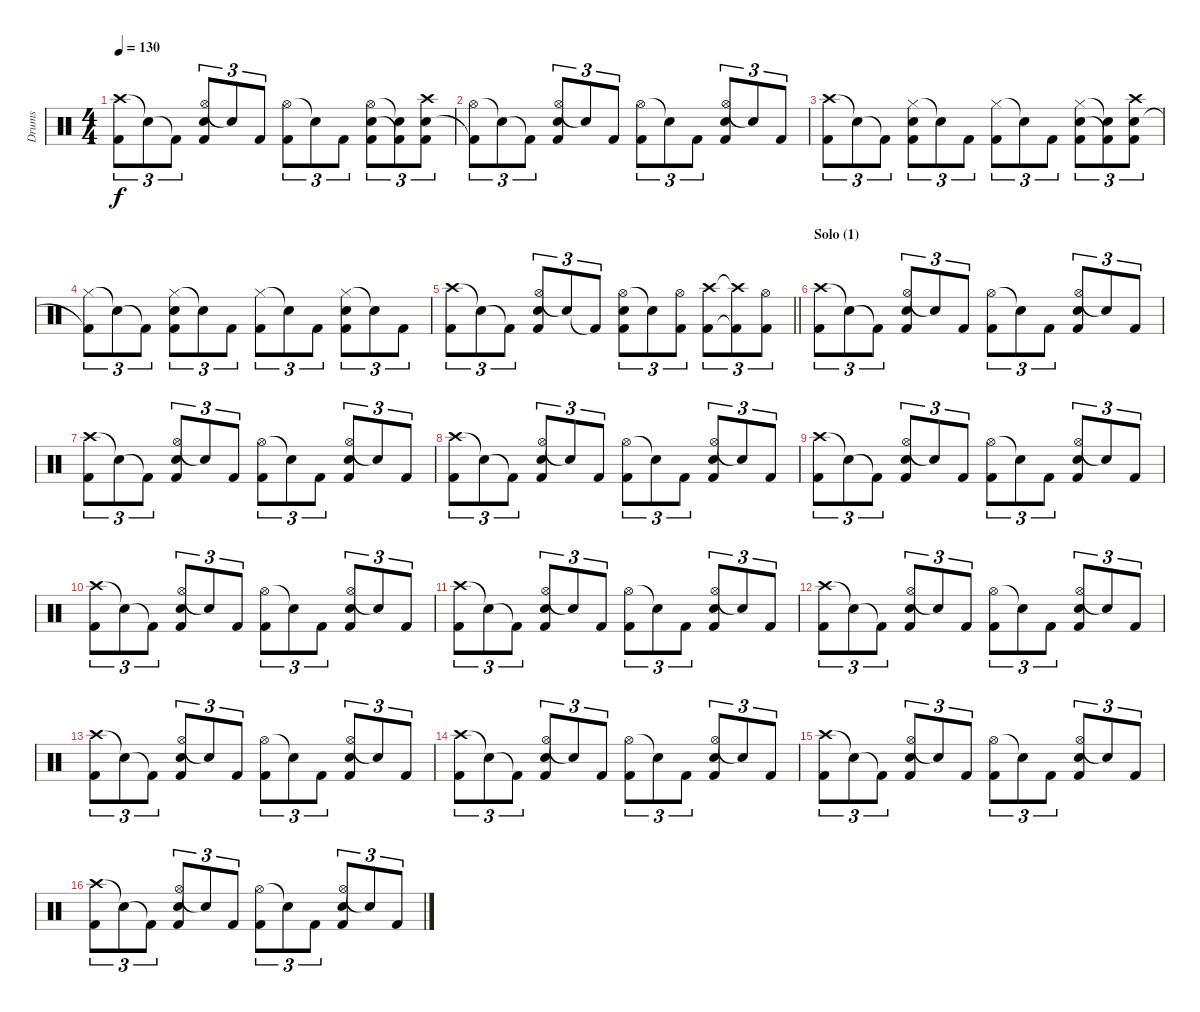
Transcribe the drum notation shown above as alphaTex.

\track ("Drums" "Drums") {instrument percussion}
\staff {score}
\articulation defaults
\ts (4 4)
\tempo 130
\clef neutral
\ks c
("Crash high (hit)" "Kick (hit) 2").8{tu (3 2) dy f} "Snare (hit)"{t}.8{tu (3 2)} "Kick (hit) 2"{t}.8{tu (3 2)} ("Hi-Hat (open)" "Electric Snare (hit)" "Kick (hit) 2").8{tu (3 2)} "Snare (hit)"{t}.8{tu (3 2)} "Kick (hit) 2".8{tu (3 2)} ("Hi-Hat (open)" "Kick (hit) 2").8{tu (3 2)} "Snare (hit)"{t}.8{tu (3 2)} "Kick (hit) 2".8{tu (3 2)} ("Hi-Hat (open)" "Electric Snare (hit)" "Kick (hit) 2").8{tu (3 2)} ("Electric Snare (hit)"{t} "Kick (hit) 2"{t}).8{tu (3 2)} ("Crash high (hit)" "Electric Snare (hit)" "Kick (hit) 2").8{tu (3 2)} |
("Hi-Hat (open)" "Kick (hit) 2"{t}).8{tu (3 2)} "Snare (hit)"{t}.8{tu (3 2)} "Kick (hit) 2"{t}.8{tu (3 2)} ("Hi-Hat (open)" "Electric Snare (hit)" "Kick (hit) 2").8{tu (3 2)} "Snare (hit)"{t}.8{tu (3 2)} "Kick (hit) 2".8{tu (3 2)} ("Hi-Hat (open)" "Kick (hit) 2").8{tu (3 2)} "Snare (hit)"{t}.8{tu (3 2)} "Kick (hit) 2".8{tu (3 2)} ("Hi-Hat (open)" "Electric Snare (hit)" "Kick (hit) 2").8{tu (3 2)} "Snare (hit)"{t}.8{tu (3 2)} "Kick (hit) 2".8{tu (3 2)} |
("Crash high (hit)" "Kick (hit) 2").8{tu (3 2)} "Snare (hit)"{t}.8{tu (3 2)} "Kick (hit) 2"{t}.8{tu (3 2)} ("Hi-Hat (closed)" "Electric Snare (hit)" "Kick (hit) 2").8{tu (3 2)} "Snare (hit)"{t}.8{tu (3 2)} "Kick (hit) 2".8{tu (3 2)} ("Hi-Hat (closed)" "Kick (hit) 2").8{tu (3 2)} "Snare (hit)"{t}.8{tu (3 2)} "Kick (hit) 2".8{tu (3 2)} ("Hi-Hat (closed)" "Electric Snare (hit)" "Kick (hit) 2").8{tu (3 2)} ("Electric Snare (hit)"{t} "Kick (hit) 2"{t}).8{tu (3 2)} ("Crash high (hit)" "Electric Snare (hit)" "Kick (hit) 2").8{tu (3 2)} |
("Hi-Hat (closed)" "Kick (hit) 2"{t}).8{tu (3 2)} "Snare (hit)"{t}.8{tu (3 2)} "Kick (hit) 2"{t}.8{tu (3 2)} ("Hi-Hat (closed)" "Electric Snare (hit)" "Kick (hit) 2").8{tu (3 2)} "Snare (hit)"{t}.8{tu (3 2)} "Kick (hit) 2".8{tu (3 2)} ("Hi-Hat (closed)" "Kick (hit) 2").8{tu (3 2)} "Snare (hit)"{t}.8{tu (3 2)} "Kick (hit) 2".8{tu (3 2)} ("Hi-Hat (closed)" "Electric Snare (hit)" "Kick (hit) 2").8{tu (3 2)} "Snare (hit)"{t}.8{tu (3 2)} "Kick (hit) 2".8{tu (3 2)} |
\barLineRight lightlight
("Crash high (hit)" "Kick (hit) 2").8{tu (3 2)} "Snare (hit)"{t}.8{tu (3 2)} "Kick (hit) 2"{t}.8{tu (3 2)} ("Hi-Hat (open)" "Electric Snare (hit)" "Kick (hit) 2").8{tu (3 2)} "Snare (hit)"{t}.8{tu (3 2)} "Kick (hit) 2"{t}.8{tu (3 2)} ("Hi-Hat (open)" "Electric Snare (hit)" "Kick (hit) 2").8{tu (3 2)} "Snare (hit)"{t}.8{tu (3 2)} ("Hi-Hat (open)" "Kick (hit) 2").8{tu (3 2)} ("Crash high (hit)" "Kick (hit) 2").8{tu (3 2)} ("Crash high (hit)"{t} "Kick (hit) 2"{t}).8{tu (3 2)} ("Hi-Hat (open)" "Kick (hit) 2").8{tu (3 2)} |
\section ("" "Solo (1)")
("Crash high (hit)" "Kick (hit) 2").8{tu (3 2)} "Snare (hit)"{t}.8{tu (3 2)} "Kick (hit) 2"{t}.8{tu (3 2)} ("Hi-Hat (open)" "Electric Snare (hit)" "Kick (hit) 2").8{tu (3 2)} "Snare (hit)"{t}.8{tu (3 2)} "Kick (hit) 2".8{tu (3 2)} ("Hi-Hat (open)" "Kick (hit) 2").8{tu (3 2)} "Snare (hit)"{t}.8{tu (3 2)} "Kick (hit) 2".8{tu (3 2)} ("Hi-Hat (open)" "Electric Snare (hit)" "Kick (hit) 2").8{tu (3 2)} "Snare (hit)"{t}.8{tu (3 2)} "Kick (hit) 2".8{tu (3 2)} |
("Crash high (hit)" "Kick (hit) 2").8{tu (3 2)} "Snare (hit)"{t}.8{tu (3 2)} "Kick (hit) 2"{t}.8{tu (3 2)} ("Hi-Hat (open)" "Electric Snare (hit)" "Kick (hit) 2").8{tu (3 2)} "Snare (hit)"{t}.8{tu (3 2)} "Kick (hit) 2".8{tu (3 2)} ("Hi-Hat (open)" "Kick (hit) 2").8{tu (3 2)} "Snare (hit)"{t}.8{tu (3 2)} "Kick (hit) 2".8{tu (3 2)} ("Hi-Hat (open)" "Electric Snare (hit)" "Kick (hit) 2").8{tu (3 2)} "Snare (hit)"{t}.8{tu (3 2)} "Kick (hit) 2".8{tu (3 2)} |
("Crash high (hit)" "Kick (hit) 2").8{tu (3 2)} "Snare (hit)"{t}.8{tu (3 2)} "Kick (hit) 2"{t}.8{tu (3 2)} ("Hi-Hat (open)" "Electric Snare (hit)" "Kick (hit) 2").8{tu (3 2)} "Snare (hit)"{t}.8{tu (3 2)} "Kick (hit) 2".8{tu (3 2)} ("Hi-Hat (open)" "Kick (hit) 2").8{tu (3 2)} "Snare (hit)"{t}.8{tu (3 2)} "Kick (hit) 2".8{tu (3 2)} ("Hi-Hat (open)" "Electric Snare (hit)" "Kick (hit) 2").8{tu (3 2)} "Snare (hit)"{t}.8{tu (3 2)} "Kick (hit) 2".8{tu (3 2)} |
("Crash high (hit)" "Kick (hit) 2").8{tu (3 2)} "Snare (hit)"{t}.8{tu (3 2)} "Kick (hit) 2"{t}.8{tu (3 2)} ("Hi-Hat (open)" "Electric Snare (hit)" "Kick (hit) 2").8{tu (3 2)} "Snare (hit)"{t}.8{tu (3 2)} "Kick (hit) 2".8{tu (3 2)} ("Hi-Hat (open)" "Kick (hit) 2").8{tu (3 2)} "Snare (hit)"{t}.8{tu (3 2)} "Kick (hit) 2".8{tu (3 2)} ("Hi-Hat (open)" "Electric Snare (hit)" "Kick (hit) 2").8{tu (3 2)} "Snare (hit)"{t}.8{tu (3 2)} "Kick (hit) 2".8{tu (3 2)} |
("Crash high (hit)" "Kick (hit) 2").8{tu (3 2)} "Snare (hit)"{t}.8{tu (3 2)} "Kick (hit) 2"{t}.8{tu (3 2)} ("Hi-Hat (open)" "Electric Snare (hit)" "Kick (hit) 2").8{tu (3 2)} "Snare (hit)"{t}.8{tu (3 2)} "Kick (hit) 2".8{tu (3 2)} ("Hi-Hat (open)" "Kick (hit) 2").8{tu (3 2)} "Snare (hit)"{t}.8{tu (3 2)} "Kick (hit) 2".8{tu (3 2)} ("Hi-Hat (open)" "Electric Snare (hit)" "Kick (hit) 2").8{tu (3 2)} "Snare (hit)"{t}.8{tu (3 2)} "Kick (hit) 2".8{tu (3 2)} |
("Crash high (hit)" "Kick (hit) 2").8{tu (3 2)} "Snare (hit)"{t}.8{tu (3 2)} "Kick (hit) 2"{t}.8{tu (3 2)} ("Hi-Hat (open)" "Electric Snare (hit)" "Kick (hit) 2").8{tu (3 2)} "Snare (hit)"{t}.8{tu (3 2)} "Kick (hit) 2".8{tu (3 2)} ("Hi-Hat (open)" "Kick (hit) 2").8{tu (3 2)} "Snare (hit)"{t}.8{tu (3 2)} "Kick (hit) 2".8{tu (3 2)} ("Hi-Hat (open)" "Electric Snare (hit)" "Kick (hit) 2").8{tu (3 2)} "Snare (hit)"{t}.8{tu (3 2)} "Kick (hit) 2".8{tu (3 2)} |
("Crash high (hit)" "Kick (hit) 2").8{tu (3 2)} "Snare (hit)"{t}.8{tu (3 2)} "Kick (hit) 2"{t}.8{tu (3 2)} ("Hi-Hat (open)" "Electric Snare (hit)" "Kick (hit) 2").8{tu (3 2)} "Snare (hit)"{t}.8{tu (3 2)} "Kick (hit) 2".8{tu (3 2)} ("Hi-Hat (open)" "Kick (hit) 2").8{tu (3 2)} "Snare (hit)"{t}.8{tu (3 2)} "Kick (hit) 2".8{tu (3 2)} ("Hi-Hat (open)" "Electric Snare (hit)" "Kick (hit) 2").8{tu (3 2)} "Snare (hit)"{t}.8{tu (3 2)} "Kick (hit) 2".8{tu (3 2)} |
("Crash high (hit)" "Kick (hit) 2").8{tu (3 2)} "Snare (hit)"{t}.8{tu (3 2)} "Kick (hit) 2"{t}.8{tu (3 2)} ("Hi-Hat (open)" "Electric Snare (hit)" "Kick (hit) 2").8{tu (3 2)} "Snare (hit)"{t}.8{tu (3 2)} "Kick (hit) 2".8{tu (3 2)} ("Hi-Hat (open)" "Kick (hit) 2").8{tu (3 2)} "Snare (hit)"{t}.8{tu (3 2)} "Kick (hit) 2".8{tu (3 2)} ("Hi-Hat (open)" "Electric Snare (hit)" "Kick (hit) 2").8{tu (3 2)} "Snare (hit)"{t}.8{tu (3 2)} "Kick (hit) 2".8{tu (3 2)} |
("Crash high (hit)" "Kick (hit) 2").8{tu (3 2)} "Snare (hit)"{t}.8{tu (3 2)} "Kick (hit) 2"{t}.8{tu (3 2)} ("Hi-Hat (open)" "Electric Snare (hit)" "Kick (hit) 2").8{tu (3 2)} "Snare (hit)"{t}.8{tu (3 2)} "Kick (hit) 2".8{tu (3 2)} ("Hi-Hat (open)" "Kick (hit) 2").8{tu (3 2)} "Snare (hit)"{t}.8{tu (3 2)} "Kick (hit) 2".8{tu (3 2)} ("Hi-Hat (open)" "Electric Snare (hit)" "Kick (hit) 2").8{tu (3 2)} "Snare (hit)"{t}.8{tu (3 2)} "Kick (hit) 2".8{tu (3 2)} |
("Crash high (hit)" "Kick (hit) 2").8{tu (3 2)} "Snare (hit)"{t}.8{tu (3 2)} "Kick (hit) 2"{t}.8{tu (3 2)} ("Hi-Hat (open)" "Electric Snare (hit)" "Kick (hit) 2").8{tu (3 2)} "Snare (hit)"{t}.8{tu (3 2)} "Kick (hit) 2".8{tu (3 2)} ("Hi-Hat (open)" "Kick (hit) 2").8{tu (3 2)} "Snare (hit)"{t}.8{tu (3 2)} "Kick (hit) 2".8{tu (3 2)} ("Hi-Hat (open)" "Electric Snare (hit)" "Kick (hit) 2").8{tu (3 2)} "Snare (hit)"{t}.8{tu (3 2)} "Kick (hit) 2".8{tu (3 2)} |
("Crash high (hit)" "Kick (hit) 2").8{tu (3 2)} "Snare (hit)"{t}.8{tu (3 2)} "Kick (hit) 2"{t}.8{tu (3 2)} ("Hi-Hat (open)" "Electric Snare (hit)" "Kick (hit) 2").8{tu (3 2)} "Snare (hit)"{t}.8{tu (3 2)} "Kick (hit) 2".8{tu (3 2)} ("Hi-Hat (open)" "Kick (hit) 2").8{tu (3 2)} "Snare (hit)"{t}.8{tu (3 2)} "Kick (hit) 2".8{tu (3 2)} ("Hi-Hat (open)" "Electric Snare (hit)" "Kick (hit) 2").8{tu (3 2)} "Snare (hit)"{t}.8{tu (3 2)} "Kick (hit) 2".8{tu (3 2)}
